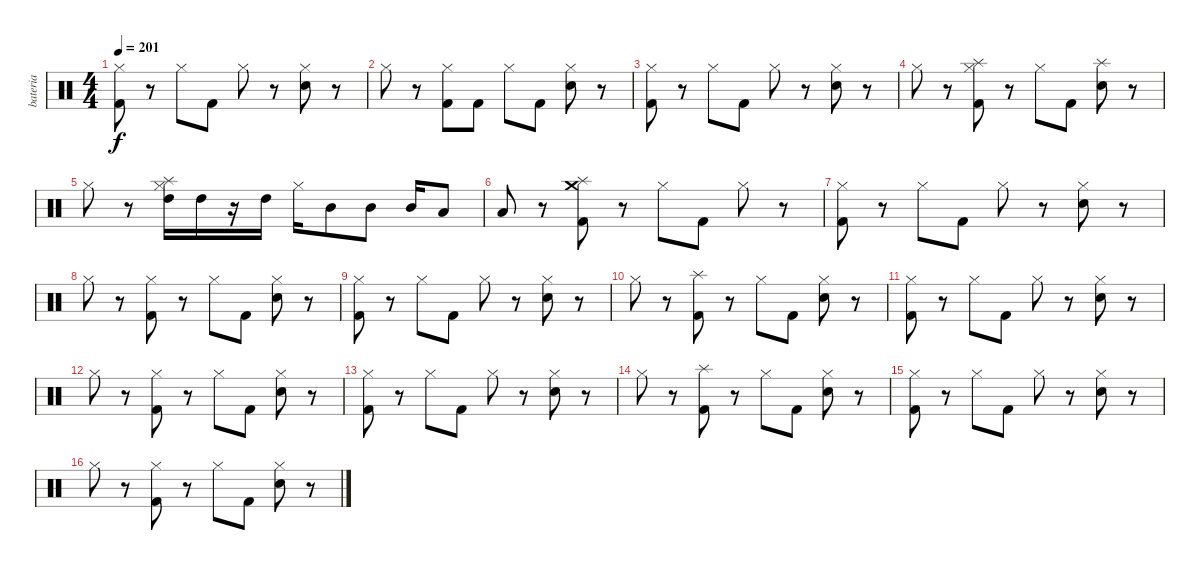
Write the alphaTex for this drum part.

\track ("bateria" "bateria") {solo instrument percussion}
\staff {score}
\articulation defaults
\ts (4 4)
\tempo 201
\clef neutral
\ks c
("Hi-Hat (closed)" "Kick (hit) 2").8{dy f} r.8 "Hi-Hat (closed)".8 "Kick (hit) 2".8 "Hi-Hat (closed)".8 r.8 ("Hi-Hat (closed)" "Electric Snare (hit)").8 r.8 |
"Hi-Hat (closed)".8 r.8 ("Hi-Hat (closed)" "Kick (hit) 2").8 "Kick (hit) 2".8 "Hi-Hat (closed)".8 "Kick (hit) 2".8 ("Hi-Hat (closed)" "Electric Snare (hit)").8 r.8 |
("Hi-Hat (closed)" "Kick (hit) 2").8 r.8 "Hi-Hat (closed)".8 "Kick (hit) 2".8 "Hi-Hat (closed)".8 r.8 ("Hi-Hat (closed)" "Electric Snare (hit)").8 r.8 |
"Hi-Hat (closed)".8 r.8 ("Hi-Hat (closed)" "Splash (hit)" "Kick (hit) 2").8 r.8 "Hi-Hat (closed)".8 "Kick (hit) 2".8 ("Snare (hit) 2" "Splash (hit)").8 r.8 |
"Hi-Hat (closed)".8 r.8 ("High Tom (hit)" "Splash (hit)" "Hi-Hat (closed)").16 "High Tom (hit)".16 r.16 "High Tom (hit)".16 "Hi-Hat (closed)".16 "Mid Tom (hit)".8 "Mid Tom (hit)".8 "Mid Tom (hit)".16 "Low Tom (hit)".8 |
"Low Tom (hit)".8 r.8 ("Crash medium (hit)" "Splash (hit)" "Kick (hit) 2").8 r.8 "Hi-Hat (closed)".8 "Kick (hit) 2".8 "Hi-Hat (closed)".8 r.8 |
("Hi-Hat (closed)" "Kick (hit) 2").8 r.8 "Hi-Hat (closed)".8 "Kick (hit) 2".8 "Hi-Hat (closed)".8 r.8 ("Hi-Hat (closed)" "Electric Snare (hit)").8 r.8 |
"Hi-Hat (closed)".8 r.8 ("Hi-Hat (closed)" "Kick (hit) 2").8 r.8 "Hi-Hat (closed)".8 "Kick (hit) 2".8 ("Hi-Hat (closed)" "Electric Snare (hit)").8 r.8 |
("Hi-Hat (closed)" "Kick (hit) 2").8 r.8 "Hi-Hat (closed)".8 "Kick (hit) 2".8 "Hi-Hat (closed)".8 r.8 ("Hi-Hat (closed)" "Electric Snare (hit)").8 r.8 |
"Hi-Hat (closed)".8 r.8 ("Splash (hit)" "Kick (hit) 2").8 r.8 "Hi-Hat (closed)".8 "Kick (hit) 2".8 ("Hi-Hat (closed)" "Electric Snare (hit)").8 r.8 |
("Hi-Hat (closed)" "Kick (hit) 2").8 r.8 "Hi-Hat (closed)".8 "Kick (hit) 2".8 "Hi-Hat (closed)".8 r.8 ("Hi-Hat (closed)" "Electric Snare (hit)").8 r.8 |
"Hi-Hat (closed)".8 r.8 ("Hi-Hat (closed)" "Kick (hit) 2").8 r.8 "Hi-Hat (closed)".8 "Kick (hit) 2".8 ("Hi-Hat (closed)" "Electric Snare (hit)").8 r.8 |
("Hi-Hat (closed)" "Kick (hit) 2").8 r.8 "Hi-Hat (closed)".8 "Kick (hit) 2".8 "Hi-Hat (closed)".8 r.8 ("Hi-Hat (closed)" "Electric Snare (hit)").8 r.8 |
"Hi-Hat (closed)".8 r.8 ("Splash (hit)" "Kick (hit) 2").8 r.8 "Hi-Hat (closed)".8 "Kick (hit) 2".8 ("Hi-Hat (closed)" "Electric Snare (hit)").8 r.8 |
("Hi-Hat (closed)" "Kick (hit) 2").8 r.8 "Hi-Hat (closed)".8 "Kick (hit) 2".8 "Hi-Hat (closed)".8 r.8 ("Hi-Hat (closed)" "Electric Snare (hit)").8 r.8 |
"Hi-Hat (closed)".8 r.8 ("Hi-Hat (closed)" "Kick (hit) 2").8 r.8 "Hi-Hat (closed)".8 "Kick (hit) 2".8 ("Hi-Hat (closed)" "Electric Snare (hit)").8 r.8
